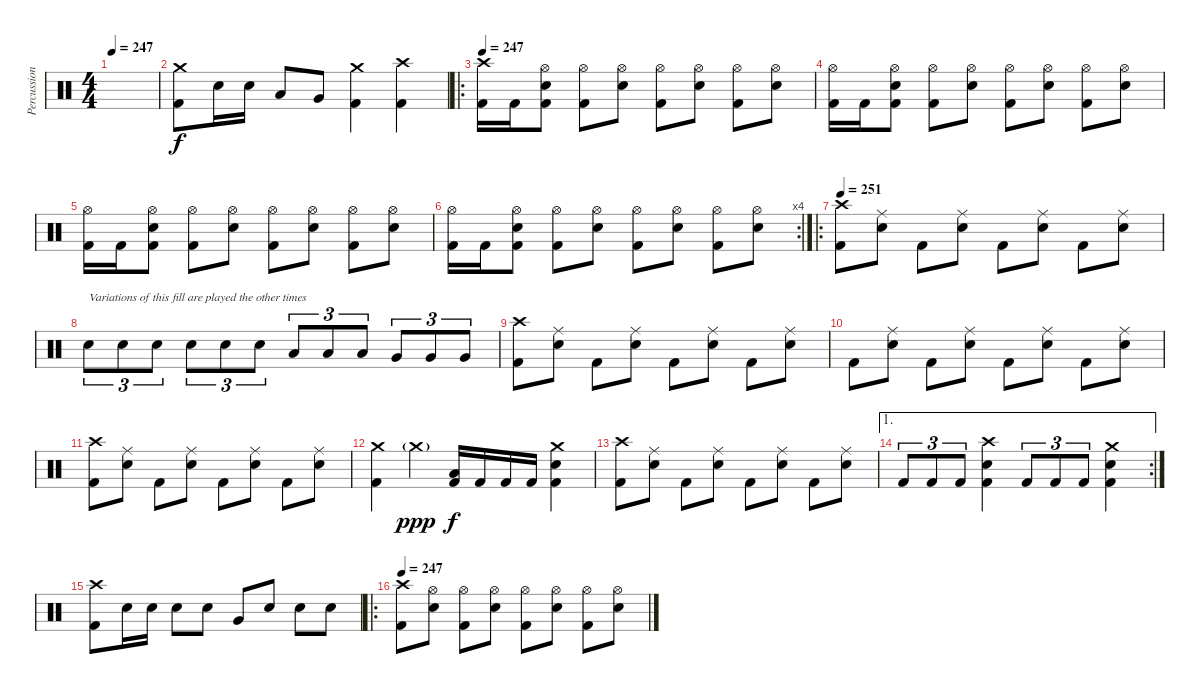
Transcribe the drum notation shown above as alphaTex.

\track ("Percussion" "Percussion") {instrument percussion}
\staff {score}
\articulation defaults
\ts (4 4)
\tempo 247
\clef neutral
\ks c
|
("Crash medium (hit)" "Kick (hit) 2").8{dy f} "Snare (hit) 2".16 "Snare (hit) 2".16 "Low Tom (hit)".8 "Very Low Tom (hit)".8 ("Crash medium (hit)" "Kick (hit) 2").4 ("Crash high (hit)" "Kick (hit) 2").4 |
\ro
\tempo 247
("Crash high (hit)" "Kick (hit) 2").16 "Kick (hit) 2".16 ("Hi-Hat (open)" "Snare (hit) 2" "Kick (hit) 2").8 ("Hi-Hat (open)" "Kick (hit) 2").8 ("Hi-Hat (open)" "Snare (hit) 2").8 ("Hi-Hat (open)" "Kick (hit) 2").8 ("Hi-Hat (open)" "Snare (hit) 2").8 ("Hi-Hat (open)" "Kick (hit) 2").8 ("Hi-Hat (open)" "Snare (hit) 2").8 |
("Hi-Hat (open)" "Kick (hit) 2").16 "Kick (hit) 2".16 ("Hi-Hat (open)" "Snare (hit) 2" "Kick (hit) 2").8 ("Hi-Hat (open)" "Kick (hit) 2").8 ("Hi-Hat (open)" "Snare (hit) 2").8 ("Hi-Hat (open)" "Kick (hit) 2").8 ("Hi-Hat (open)" "Snare (hit) 2").8 ("Hi-Hat (open)" "Kick (hit) 2").8 ("Hi-Hat (open)" "Snare (hit) 2").8 |
("Hi-Hat (open)" "Kick (hit) 2").16 "Kick (hit) 2".16 ("Hi-Hat (open)" "Snare (hit) 2" "Kick (hit) 2").8 ("Hi-Hat (open)" "Kick (hit) 2").8 ("Hi-Hat (open)" "Snare (hit) 2").8 ("Hi-Hat (open)" "Kick (hit) 2").8 ("Hi-Hat (open)" "Snare (hit) 2").8 ("Hi-Hat (open)" "Kick (hit) 2").8 ("Hi-Hat (open)" "Snare (hit) 2").8 |
\rc 4
("Hi-Hat (open)" "Kick (hit) 2").16 "Kick (hit) 2".16 ("Hi-Hat (open)" "Snare (hit) 2" "Kick (hit) 2").8 ("Hi-Hat (open)" "Kick (hit) 2").8 ("Hi-Hat (open)" "Snare (hit) 2").8 ("Hi-Hat (open)" "Kick (hit) 2").8 ("Hi-Hat (open)" "Snare (hit) 2").8 ("Hi-Hat (open)" "Kick (hit) 2").8 ("Hi-Hat (open)" "Snare (hit) 2").8 |
\ro
\tempo 251
("Crash high (hit)" "Kick (hit) 2").8 ("Ride (middle)" "Snare (hit) 2").8 "Kick (hit) 2".8 ("Ride (middle)" "Snare (hit) 2").8 "Kick (hit) 2".8 ("Ride (middle)" "Snare (hit) 2").8 "Kick (hit) 2".8 ("Ride (middle)" "Snare (hit) 2").8 |
"Snare (hit) 2".8{tu (3 2) txt "Variations of this fill are played the other times"} "Snare (hit) 2".8{tu (3 2)} "Snare (hit) 2".8{tu (3 2)} "Snare (hit) 2".8{tu (3 2)} "Snare (hit) 2".8{tu (3 2)} "Snare (hit) 2".8{tu (3 2)} "Low Tom (hit)".8{tu (3 2)} "Low Tom (hit)".8{tu (3 2)} "Low Tom (hit)".8{tu (3 2)} "Very Low Tom (hit)".8{tu (3 2)} "Very Low Tom (hit)".8{tu (3 2)} "Very Low Tom (hit)".8{tu (3 2)} |
("Crash high (hit)" "Kick (hit) 2").8 ("Ride (middle)" "Snare (hit) 2").8 "Kick (hit) 2".8 ("Ride (middle)" "Snare (hit) 2").8 "Kick (hit) 2".8 ("Ride (middle)" "Snare (hit) 2").8 "Kick (hit) 2".8 ("Ride (middle)" "Snare (hit) 2").8 |
"Kick (hit) 2".8 ("Ride (middle)" "Snare (hit) 2").8 "Kick (hit) 2".8 ("Ride (middle)" "Snare (hit) 2").8 "Kick (hit) 2".8 ("Ride (middle)" "Snare (hit) 2").8 "Kick (hit) 2".8 ("Ride (middle)" "Snare (hit) 2").8 |
("Crash high (hit)" "Kick (hit) 2").8 ("Ride (middle)" "Snare (hit) 2").8 "Kick (hit) 2".8 ("Ride (middle)" "Snare (hit) 2").8 "Kick (hit) 2".8 ("Ride (middle)" "Snare (hit) 2").8 "Kick (hit) 2".8 ("Ride (middle)" "Snare (hit) 2").8 |
("Crash medium (hit)" "Kick (hit) 2").4 "Crash medium (hit)"{g}.4{dy ppp} ("Low Tom (hit)" "Kick (hit) 2").16{dy f} "Kick (hit) 2".16 "Kick (hit) 2".16 "Kick (hit) 2".16 ("Crash medium (hit)" "Snare (hit) 2" "Kick (hit) 2").4 |
("Crash high (hit)" "Kick (hit) 2").8 ("Ride (middle)" "Snare (hit) 2").8 "Kick (hit) 2".8 ("Ride (middle)" "Snare (hit) 2").8 "Kick (hit) 2".8 ("Ride (middle)" "Snare (hit) 2").8 "Kick (hit) 2".8 ("Ride (middle)" "Snare (hit) 2").8 |
\ae 1
\rc 2 "Kick (hit) 2".8{tu (3 2)} "Kick (hit) 2".8{tu (3 2)} "Kick (hit) 2".8{tu (3 2)}
("Crash high (hit)" "Snare (hit) 2" "Kick (hit) 2").4 "Kick (hit) 2".8{tu (3 2)} "Kick (hit) 2".8{tu (3 2)} "Kick (hit) 2".8{tu (3 2)} ("Crash medium (hit)" "Snare (hit) 2" "Kick (hit) 2").4 |
("Crash high (hit)" "Kick (hit) 2").8 "Snare (hit) 2".16 "Snare (hit) 2".16 "Snare (hit) 2".8 "Snare (hit) 2".8 "Very Low Tom (hit)".8 "Snare (hit) 2".8 "Snare (hit) 2".8 "Snare (hit) 2".8 |
\ro
\tempo 247
("Crash high (hit)" "Kick (hit) 2").8 ("Hi-Hat (open)" "Snare (hit) 2").8 ("Hi-Hat (open)" "Kick (hit) 2").8 ("Hi-Hat (open)" "Snare (hit) 2").8 ("Hi-Hat (open)" "Kick (hit) 2").8 ("Hi-Hat (open)" "Snare (hit) 2").8 ("Hi-Hat (open)" "Kick (hit) 2").8 ("Hi-Hat (open)" "Snare (hit) 2").8
